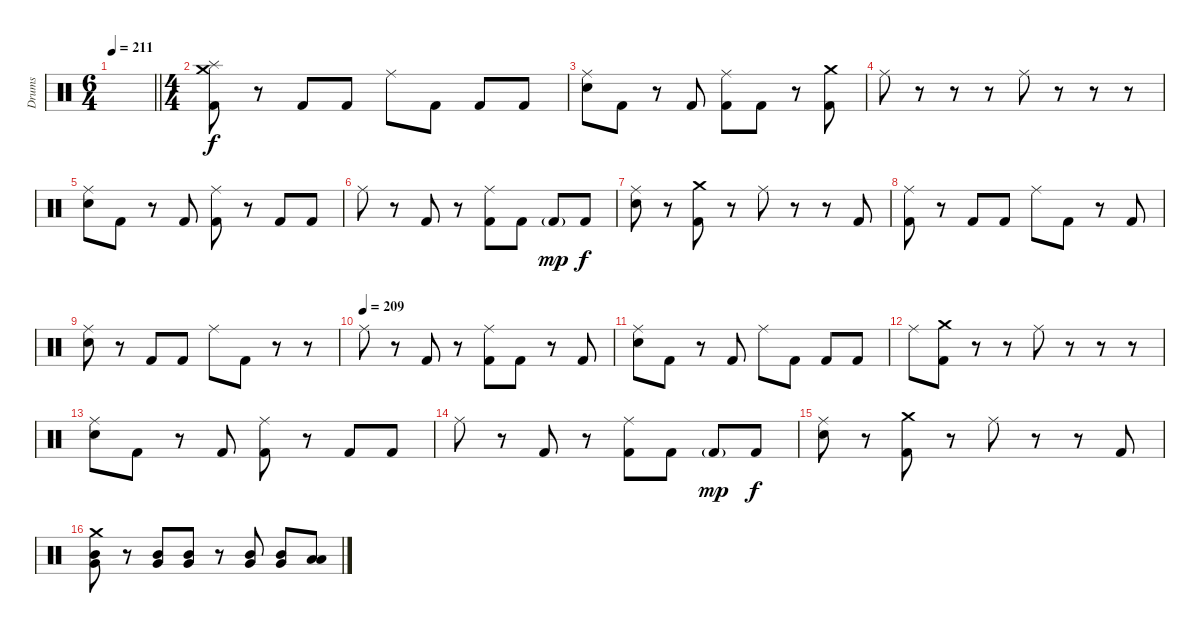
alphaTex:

\track ("Drums" "Drums") {instrument percussion}
\staff {score}
\articulation defaults
\ts (6 4)
\tempo 211
\clef neutral
\barLineRight lightlight
\ks c
|
\ts (4 4)
\section ("" "")
("Crash medium (hit)" "Splash (hit)" "Kick (hit) 2").8 r.8 "Kick (hit) 2".8 "Kick (hit) 2".8 "Ride (middle)".8 "Kick (hit) 2".8 "Kick (hit) 2".8 "Kick (hit) 2".8 |
("Ride (middle)" "Electric Snare (hit)").8 "Kick (hit) 2".8 r.8 "Kick (hit) 2".8 ("Ride (middle)" "Kick (hit) 2").8 "Kick (hit) 2".8 r.8 ("Crash medium (hit)" "Kick (hit) 2").8 |
"Ride (middle)".8 r.8 r.8 r.8 "Ride (middle)".8 r.8 r.8 r.8 |
("Ride (middle)" "Electric Snare (hit)").8 "Kick (hit) 2".8 r.8 "Kick (hit) 2".8 ("Ride (middle)" "Kick (hit) 2").8 r.8 "Kick (hit) 2".8 "Kick (hit) 2".8 |
"Ride (middle)".8 r.8 "Kick (hit) 2".8 r.8 ("Ride (middle)" "Kick (hit) 2").8 "Kick (hit) 2".8 "Kick (hit) 2"{g}.8{dy mp} "Kick (hit) 2".8{dy f} |
("Ride (middle)" "Electric Snare (hit)").8 r.8 ("Crash medium (hit)" "Kick (hit) 2").8 r.8 "Ride (middle)".8 r.8 r.8 "Kick (hit) 2".8 |
("Ride (middle)" "Kick (hit) 2").8 r.8 "Kick (hit) 2".8 "Kick (hit) 2".8 "Ride (middle)".8 "Kick (hit) 2".8 r.8 "Kick (hit) 2".8 |
("Ride (middle)" "Electric Snare (hit)").8 r.8 "Kick (hit) 2".8 "Kick (hit) 2".8 "Ride (middle)".8 "Kick (hit) 2".8 r.8 r.8 |
\tempo (209)
"Ride (middle)".8 r.8 "Kick (hit) 2".8 r.8 ("Ride (middle)" "Kick (hit) 2").8 "Kick (hit) 2".8 r.8 "Kick (hit) 2".8 |
("Ride (middle)" "Electric Snare (hit)").8 "Kick (hit) 2".8 r.8 "Kick (hit) 2".8 "Ride (middle)".8 "Kick (hit) 2".8 "Kick (hit) 2".8 "Kick (hit) 2".8 |
"Ride (middle)".8 ("Crash medium (hit)" "Kick (hit) 2").8 r.8 r.8 "Ride (middle)".8 r.8 r.8 r.8 |
("Ride (middle)" "Electric Snare (hit)").8 "Kick (hit) 2".8 r.8 "Kick (hit) 2".8 ("Ride (middle)" "Kick (hit) 2").8 r.8 "Kick (hit) 2".8 "Kick (hit) 2".8 |
"Ride (middle)".8 r.8 "Kick (hit) 2".8 r.8 ("Ride (middle)" "Kick (hit) 2").8 "Kick (hit) 2".8 "Kick (hit) 2"{g}.8{dy mp} "Kick (hit) 2".8{dy f} |
("Ride (middle)" "Electric Snare (hit)").8 r.8 ("Crash medium (hit)" "Kick (hit) 2").8 r.8 "Ride (middle)".8 r.8 r.8 "Kick (hit) 2".8 |
("Crash medium (hit)" "Mid Tom (hit)" "Very Low Tom (hit)").8 r.8 ("Mid Tom (hit)" "Very Low Tom (hit)").8 ("Mid Tom (hit)" "Very Low Tom (hit)").8 r.8 ("Mid Tom (hit)" "Very Low Tom (hit)").8 ("Mid Tom (hit)" "Very Low Tom (hit)").8 ("Low Tom (hit)" "Low Floor Tom (hit)").8
